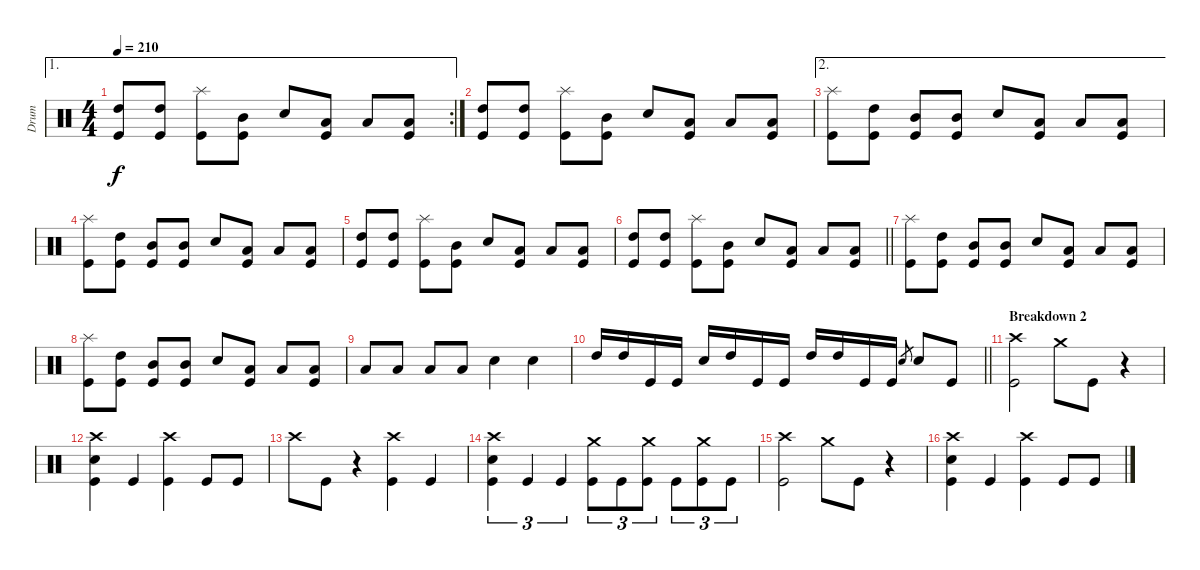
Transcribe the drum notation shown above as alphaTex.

\track ("Drum" "Drum") {instrument percussion}
\staff {score}
\articulation defaults
\ae 1
\rc 2
\ts (4 4)
\tempo 210
\clef neutral
\ks c
("High Tom (hit)" "Kick (hit)").8{dy f} ("High Tom (hit)" "Kick (hit)").8 ("Splash (hit)" "Kick (hit)").8 ("Mid Tom (hit)" "Kick (hit)").8 "Snare (hit) 2".8 ("Low Tom (hit)" "Kick (hit)").8 "Low Tom (hit)".8 ("Low Tom (hit)" "Kick (hit)").8 |
("High Tom (hit)" "Kick (hit)").8 ("High Tom (hit)" "Kick (hit)").8 ("Splash (hit)" "Kick (hit)").8 ("Mid Tom (hit)" "Kick (hit)").8 "Snare (hit) 2".8 ("Low Tom (hit)" "Kick (hit)").8 "Low Tom (hit)".8 ("Low Tom (hit)" "Kick (hit)").8 |
\ae 2
("Splash (hit)" "Kick (hit)").8 ("High Tom (hit)" "Kick (hit)").8 ("Mid Tom (hit)" "Kick (hit)").8 ("Mid Tom (hit)" "Kick (hit)").8 "Snare (hit) 2".8 ("Low Tom (hit)" "Kick (hit)").8 "Low Tom (hit)".8 ("Low Tom (hit)" "Kick (hit)").8 |
("Splash (hit)" "Kick (hit)").8 ("High Tom (hit)" "Kick (hit)").8 ("Mid Tom (hit)" "Kick (hit)").8 ("Mid Tom (hit)" "Kick (hit)").8 "Snare (hit) 2".8 ("Low Tom (hit)" "Kick (hit)").8 "Low Tom (hit)".8 ("Low Tom (hit)" "Kick (hit)").8 |
("High Tom (hit)" "Kick (hit)").8 ("High Tom (hit)" "Kick (hit)").8 ("Splash (hit)" "Kick (hit)").8 ("Mid Tom (hit)" "Kick (hit)").8 "Snare (hit) 2".8 ("Low Tom (hit)" "Kick (hit)").8 "Low Tom (hit)".8 ("Low Tom (hit)" "Kick (hit)").8 |
\barLineRight lightlight
("High Tom (hit)" "Kick (hit)").8 ("High Tom (hit)" "Kick (hit)").8 ("Splash (hit)" "Kick (hit)").8 ("Mid Tom (hit)" "Kick (hit)").8 "Snare (hit) 2".8 ("Low Tom (hit)" "Kick (hit)").8 "Low Tom (hit)".8 ("Low Tom (hit)" "Kick (hit)").8 |
("Splash (hit)" "Kick (hit)").8 ("High Tom (hit)" "Kick (hit)").8 ("Mid Tom (hit)" "Kick (hit)").8 ("Mid Tom (hit)" "Kick (hit)").8 "Snare (hit) 2".8 ("Low Tom (hit)" "Kick (hit)").8 "Low Tom (hit)".8 ("Low Tom (hit)" "Kick (hit)").8 |
("Splash (hit)" "Kick (hit)").8 ("High Tom (hit)" "Kick (hit)").8 ("Mid Tom (hit)" "Kick (hit)").8 ("Mid Tom (hit)" "Kick (hit)").8 "Snare (hit) 2".8 ("Low Tom (hit)" "Kick (hit)").8 "Low Tom (hit)".8 ("Low Tom (hit)" "Kick (hit)").8 |
"Low Tom (hit)".8 "Low Tom (hit)".8 "Low Tom (hit)".8 "Low Tom (hit)".8 "Snare (hit) 2".4 "Snare (hit) 2".4 |
\barLineRight lightlight "High Tom (hit)".16 "High Tom (hit)".16 "Kick (hit)".16 "Kick (hit)".16 "Snare (hit) 2".16 "High Tom (hit)".16 "Kick (hit)".16 "Kick (hit)".16 "High Tom (hit)".16 "High Tom (hit)".16 "Kick (hit)".16 "Kick (hit)".16 "Snare (hit) 2".8{gr} "Snare (hit) 2".8 "Kick (hit)".8
|
\section ("" "Breakdown 2")
("Crash high (hit)" "Kick (hit)").2 "Crash medium (hit)".8 "Kick (hit)".8 r.4 |
("Crash high (hit)" "Snare (hit) 2" "Kick (hit)").4 "Kick (hit)".4 ("Crash high (hit)" "Kick (hit)").4 "Kick (hit)".8 "Kick (hit)".8 |
"Crash high (hit)".8 "Kick (hit)".8 r.4 ("Crash high (hit)" "Kick (hit)").4 "Kick (hit)".4 |
("Crash high (hit)" "Snare (hit) 2" "Kick (hit)").4{tu (3 2)} "Kick (hit)".4{tu (3 2)} "Kick (hit)".4{tu (3 2)} ("Crash medium (hit)" "Kick (hit)").8{tu (3 2)} "Kick (hit)".8{tu (3 2)} ("Crash medium (hit)" "Kick (hit)").8{tu (3 2)} "Kick (hit)".8{tu (3 2)} ("Crash medium (hit)" "Kick (hit)").8{tu (3 2)} "Kick (hit)".8{tu (3 2)} |
("Crash high (hit)" "Kick (hit)").2 "Crash medium (hit)".8 "Kick (hit)".8 r.4 |
("Crash high (hit)" "Snare (hit) 2" "Kick (hit)").4 "Kick (hit)".4 ("Crash high (hit)" "Kick (hit)").4 "Kick (hit)".8 "Kick (hit)".8
